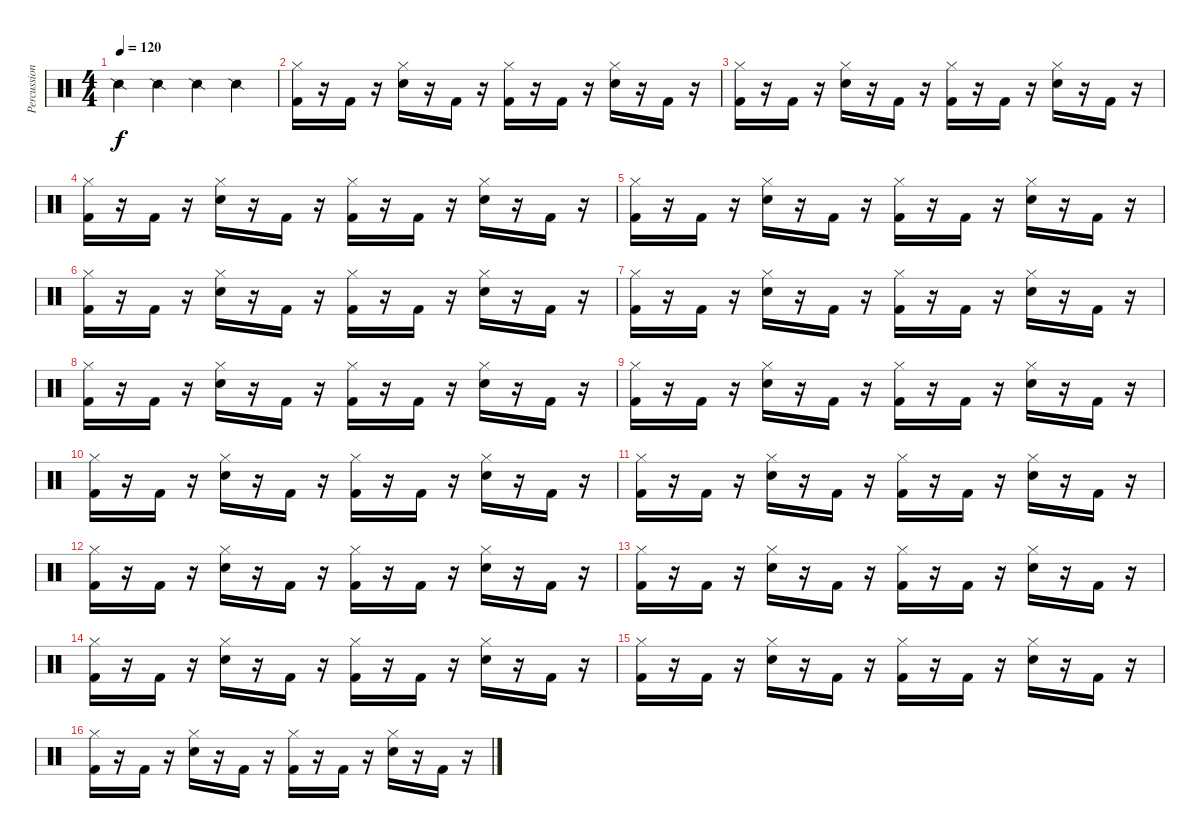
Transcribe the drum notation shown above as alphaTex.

\track ("Percussion" "Percussion") {instrument percussion}
\staff {score}
\articulation defaults
\ts (4 4)
\tempo 120
\clef neutral
\ks c "Snare (side stick) 2".4{dy f} "Snare (side stick) 2".4 "Snare (side stick) 2".4 "Snare (side stick) 2".4
|
("Kick (hit) 2" "Hi-Hat (closed)").16 r.16 "Kick (hit) 2".16 r.16 ("Snare (hit) 2" "Hi-Hat (closed)").16 r.16 "Kick (hit) 2".16 r.16 ("Kick (hit) 2" "Hi-Hat (closed)").16 r.16 "Kick (hit) 2".16 r.16 ("Snare (hit) 2" "Hi-Hat (closed)").16 r.16 "Kick (hit) 2".16 r.16 |
("Kick (hit) 2" "Hi-Hat (closed)").16 r.16 "Kick (hit) 2".16 r.16 ("Snare (hit) 2" "Hi-Hat (closed)").16 r.16 "Kick (hit) 2".16 r.16 ("Kick (hit) 2" "Hi-Hat (closed)").16 r.16 "Kick (hit) 2".16 r.16 ("Snare (hit) 2" "Hi-Hat (closed)").16 r.16 "Kick (hit) 2".16 r.16 |
("Kick (hit) 2" "Hi-Hat (closed)").16 r.16 "Kick (hit) 2".16 r.16 ("Snare (hit) 2" "Hi-Hat (closed)").16 r.16 "Kick (hit) 2".16 r.16 ("Kick (hit) 2" "Hi-Hat (closed)").16 r.16 "Kick (hit) 2".16 r.16 ("Snare (hit) 2" "Hi-Hat (closed)").16 r.16 "Kick (hit) 2".16 r.16 |
("Kick (hit) 2" "Hi-Hat (closed)").16 r.16 "Kick (hit) 2".16 r.16 ("Snare (hit) 2" "Hi-Hat (closed)").16 r.16 "Kick (hit) 2".16 r.16 ("Kick (hit) 2" "Hi-Hat (closed)").16 r.16 "Kick (hit) 2".16 r.16 ("Snare (hit) 2" "Hi-Hat (closed)").16 r.16 "Kick (hit) 2".16 r.16 |
("Kick (hit) 2" "Hi-Hat (closed)").16 r.16 "Kick (hit) 2".16 r.16 ("Snare (hit) 2" "Hi-Hat (closed)").16 r.16 "Kick (hit) 2".16 r.16 ("Kick (hit) 2" "Hi-Hat (closed)").16 r.16 "Kick (hit) 2".16 r.16 ("Snare (hit) 2" "Hi-Hat (closed)").16 r.16 "Kick (hit) 2".16 r.16 |
("Kick (hit) 2" "Hi-Hat (closed)").16 r.16 "Kick (hit) 2".16 r.16 ("Snare (hit) 2" "Hi-Hat (closed)").16 r.16 "Kick (hit) 2".16 r.16 ("Kick (hit) 2" "Hi-Hat (closed)").16 r.16 "Kick (hit) 2".16 r.16 ("Snare (hit) 2" "Hi-Hat (closed)").16 r.16 "Kick (hit) 2".16 r.16 |
("Kick (hit) 2" "Hi-Hat (closed)").16 r.16 "Kick (hit) 2".16 r.16 ("Snare (hit) 2" "Hi-Hat (closed)").16 r.16 "Kick (hit) 2".16 r.16 ("Kick (hit) 2" "Hi-Hat (closed)").16 r.16 "Kick (hit) 2".16 r.16 ("Snare (hit) 2" "Hi-Hat (closed)").16 r.16 "Kick (hit) 2".16 r.16 |
("Kick (hit) 2" "Hi-Hat (closed)").16 r.16 "Kick (hit) 2".16 r.16 ("Snare (hit) 2" "Hi-Hat (closed)").16 r.16 "Kick (hit) 2".16 r.16 ("Kick (hit) 2" "Hi-Hat (closed)").16 r.16 "Kick (hit) 2".16 r.16 ("Snare (hit) 2" "Hi-Hat (closed)").16 r.16 "Kick (hit) 2".16 r.16 |
("Kick (hit) 2" "Hi-Hat (closed)").16 r.16 "Kick (hit) 2".16 r.16 ("Snare (hit) 2" "Hi-Hat (closed)").16 r.16 "Kick (hit) 2".16 r.16 ("Kick (hit) 2" "Hi-Hat (closed)").16 r.16 "Kick (hit) 2".16 r.16 ("Snare (hit) 2" "Hi-Hat (closed)").16 r.16 "Kick (hit) 2".16 r.16 |
("Kick (hit) 2" "Hi-Hat (closed)").16 r.16 "Kick (hit) 2".16 r.16 ("Snare (hit) 2" "Hi-Hat (closed)").16 r.16 "Kick (hit) 2".16 r.16 ("Kick (hit) 2" "Hi-Hat (closed)").16 r.16 "Kick (hit) 2".16 r.16 ("Snare (hit) 2" "Hi-Hat (closed)").16 r.16 "Kick (hit) 2".16 r.16 |
("Kick (hit) 2" "Hi-Hat (closed)").16 r.16 "Kick (hit) 2".16 r.16 ("Snare (hit) 2" "Hi-Hat (closed)").16 r.16 "Kick (hit) 2".16 r.16 ("Kick (hit) 2" "Hi-Hat (closed)").16 r.16 "Kick (hit) 2".16 r.16 ("Snare (hit) 2" "Hi-Hat (closed)").16 r.16 "Kick (hit) 2".16 r.16 |
("Kick (hit) 2" "Hi-Hat (closed)").16 r.16 "Kick (hit) 2".16 r.16 ("Snare (hit) 2" "Hi-Hat (closed)").16 r.16 "Kick (hit) 2".16 r.16 ("Kick (hit) 2" "Hi-Hat (closed)").16 r.16 "Kick (hit) 2".16 r.16 ("Snare (hit) 2" "Hi-Hat (closed)").16 r.16 "Kick (hit) 2".16 r.16 |
("Kick (hit) 2" "Hi-Hat (closed)").16 r.16 "Kick (hit) 2".16 r.16 ("Snare (hit) 2" "Hi-Hat (closed)").16 r.16 "Kick (hit) 2".16 r.16 ("Kick (hit) 2" "Hi-Hat (closed)").16 r.16 "Kick (hit) 2".16 r.16 ("Snare (hit) 2" "Hi-Hat (closed)").16 r.16 "Kick (hit) 2".16 r.16 |
("Kick (hit) 2" "Hi-Hat (closed)").16 r.16 "Kick (hit) 2".16 r.16 ("Snare (hit) 2" "Hi-Hat (closed)").16 r.16 "Kick (hit) 2".16 r.16 ("Kick (hit) 2" "Hi-Hat (closed)").16 r.16 "Kick (hit) 2".16 r.16 ("Snare (hit) 2" "Hi-Hat (closed)").16 r.16 "Kick (hit) 2".16 r.16 |
("Kick (hit) 2" "Hi-Hat (closed)").16 r.16 "Kick (hit) 2".16 r.16 ("Snare (hit) 2" "Hi-Hat (closed)").16 r.16 "Kick (hit) 2".16 r.16 ("Kick (hit) 2" "Hi-Hat (closed)").16 r.16 "Kick (hit) 2".16 r.16 ("Snare (hit) 2" "Hi-Hat (closed)").16 r.16 "Kick (hit) 2".16 r.16
